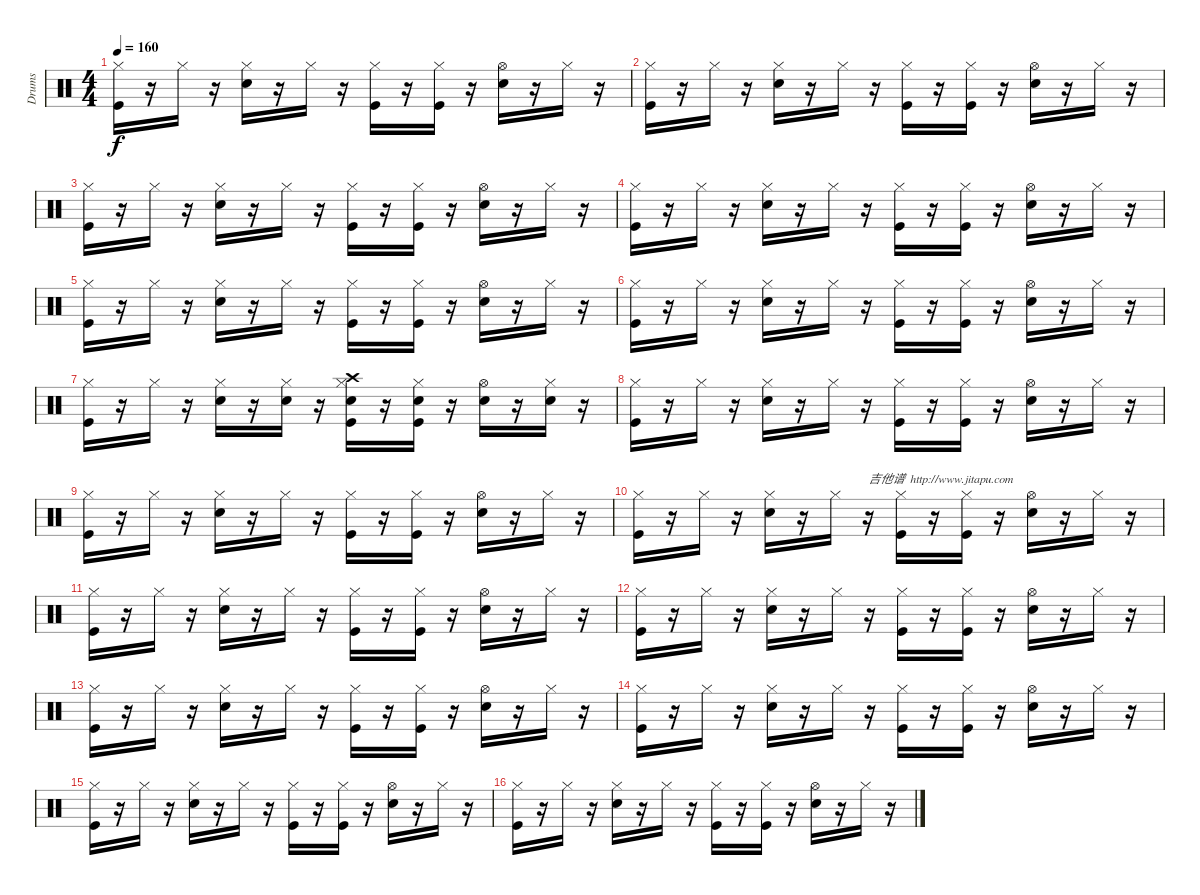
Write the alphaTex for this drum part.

\track ("Drums" "Drums") {instrument percussion}
\staff {score}
\articulation defaults
\ts (4 4)
\tempo 160
\clef neutral
\ks c
("Hi-Hat (closed)" "Kick (hit)").16{dy f} r.16 "Hi-Hat (closed)".16 r.16 ("Hi-Hat (closed)" "Snare (hit) 2").16 r.16 "Hi-Hat (closed)".16 r.16 ("Hi-Hat (closed)" "Kick (hit)").16 r.16 ("Kick (hit)" "Hi-Hat (closed)").16 r.16 ("Hi-Hat (open)" "Snare (hit) 2").16 r.16 "Hi-Hat (closed)".16 r.16 |
("Hi-Hat (closed)" "Kick (hit)").16 r.16 "Hi-Hat (closed)".16 r.16 ("Hi-Hat (closed)" "Snare (hit) 2").16 r.16 "Hi-Hat (closed)".16 r.16 ("Hi-Hat (closed)" "Kick (hit)").16 r.16 ("Kick (hit)" "Hi-Hat (closed)").16 r.16 ("Hi-Hat (open)" "Snare (hit) 2").16 r.16 "Hi-Hat (closed)".16 r.16 |
("Hi-Hat (closed)" "Kick (hit)").16 r.16 "Hi-Hat (closed)".16 r.16 ("Hi-Hat (closed)" "Snare (hit) 2").16 r.16 "Hi-Hat (closed)".16 r.16 ("Hi-Hat (closed)" "Kick (hit)").16 r.16 ("Kick (hit)" "Hi-Hat (closed)").16 r.16 ("Hi-Hat (open)" "Snare (hit) 2").16 r.16 "Hi-Hat (closed)".16 r.16 |
("Hi-Hat (closed)" "Kick (hit)").16 r.16 "Hi-Hat (closed)".16 r.16 ("Hi-Hat (closed)" "Snare (hit) 2").16 r.16 "Hi-Hat (closed)".16 r.16 ("Hi-Hat (closed)" "Kick (hit)").16 r.16 ("Kick (hit)" "Hi-Hat (closed)").16 r.16 ("Hi-Hat (open)" "Snare (hit) 2").16 r.16 "Hi-Hat (closed)".16 r.16 |
("Hi-Hat (closed)" "Kick (hit)").16 r.16 "Hi-Hat (closed)".16 r.16 ("Hi-Hat (closed)" "Snare (hit) 2").16 r.16 "Hi-Hat (closed)".16 r.16 ("Hi-Hat (closed)" "Kick (hit)").16 r.16 ("Kick (hit)" "Hi-Hat (closed)").16 r.16 ("Hi-Hat (open)" "Snare (hit) 2").16 r.16 "Hi-Hat (closed)".16 r.16 |
("Hi-Hat (closed)" "Kick (hit)").16 r.16 "Hi-Hat (closed)".16 r.16 ("Hi-Hat (closed)" "Snare (hit) 2").16 r.16 "Hi-Hat (closed)".16 r.16 ("Hi-Hat (closed)" "Kick (hit)").16 r.16 ("Kick (hit)" "Hi-Hat (closed)").16 r.16 ("Hi-Hat (open)" "Snare (hit) 2").16 r.16 "Hi-Hat (closed)".16 r.16 |
("Hi-Hat (closed)" "Kick (hit)").16 r.16 "Hi-Hat (closed)".16 r.16 ("Hi-Hat (closed)" "Snare (hit) 2").16 r.16 ("Snare (hit) 2" "Hi-Hat (closed)").16 r.16 ("Crash high (hit)" "Snare (hit) 2" "Hi-Hat (closed)" "Kick (hit)").16 r.16 ("Snare (hit) 2" "Kick (hit)" "Hi-Hat (closed)").16 r.16 ("Hi-Hat (open)" "Snare (hit) 2").16 r.16 ("Snare (hit) 2" "Hi-Hat (closed)").16 r.16 |
("Hi-Hat (closed)" "Kick (hit)").16 r.16 "Hi-Hat (closed)".16 r.16 ("Hi-Hat (closed)" "Snare (hit) 2").16 r.16 "Hi-Hat (closed)".16 r.16 ("Hi-Hat (closed)" "Kick (hit)").16 r.16 ("Kick (hit)" "Hi-Hat (closed)").16 r.16 ("Hi-Hat (open)" "Snare (hit) 2").16 r.16 "Hi-Hat (closed)".16 r.16 |
("Hi-Hat (closed)" "Kick (hit)").16 r.16 "Hi-Hat (closed)".16 r.16 ("Hi-Hat (closed)" "Snare (hit) 2").16 r.16 "Hi-Hat (closed)".16 r.16 ("Hi-Hat (closed)" "Kick (hit)").16 r.16 ("Kick (hit)" "Hi-Hat (closed)").16 r.16 ("Hi-Hat (open)" "Snare (hit) 2").16 r.16 "Hi-Hat (closed)".16 r.16 |
("Hi-Hat (closed)" "Kick (hit)").16 r.16 "Hi-Hat (closed)".16 r.16 ("Hi-Hat (closed)" "Snare (hit) 2").16 r.16 "Hi-Hat (closed)".16 r.16{txt "吉他谱  http://www.jitapu.com"} ("Hi-Hat (closed)" "Kick (hit)").16 r.16 ("Kick (hit)" "Hi-Hat (closed)").16 r.16 ("Hi-Hat (open)" "Snare (hit) 2").16 r.16 "Hi-Hat (closed)".16 r.16 |
("Hi-Hat (closed)" "Kick (hit)").16 r.16 "Hi-Hat (closed)".16 r.16 ("Hi-Hat (closed)" "Snare (hit) 2").16 r.16 "Hi-Hat (closed)".16 r.16 ("Hi-Hat (closed)" "Kick (hit)").16 r.16 ("Kick (hit)" "Hi-Hat (closed)").16 r.16 ("Hi-Hat (open)" "Snare (hit) 2").16 r.16 "Hi-Hat (closed)".16 r.16 |
("Hi-Hat (closed)" "Kick (hit)").16 r.16 "Hi-Hat (closed)".16 r.16 ("Hi-Hat (closed)" "Snare (hit) 2").16 r.16 "Hi-Hat (closed)".16 r.16 ("Hi-Hat (closed)" "Kick (hit)").16 r.16 ("Kick (hit)" "Hi-Hat (closed)").16 r.16 ("Hi-Hat (open)" "Snare (hit) 2").16 r.16 "Hi-Hat (closed)".16 r.16 |
("Hi-Hat (closed)" "Kick (hit)").16 r.16 "Hi-Hat (closed)".16 r.16 ("Hi-Hat (closed)" "Snare (hit) 2").16 r.16 "Hi-Hat (closed)".16 r.16 ("Hi-Hat (closed)" "Kick (hit)").16 r.16 ("Kick (hit)" "Hi-Hat (closed)").16 r.16 ("Hi-Hat (open)" "Snare (hit) 2").16 r.16 "Hi-Hat (closed)".16 r.16 |
("Hi-Hat (closed)" "Kick (hit)").16 r.16 "Hi-Hat (closed)".16 r.16 ("Hi-Hat (closed)" "Snare (hit) 2").16 r.16 "Hi-Hat (closed)".16 r.16 ("Hi-Hat (closed)" "Kick (hit)").16 r.16 ("Kick (hit)" "Hi-Hat (closed)").16 r.16 ("Hi-Hat (open)" "Snare (hit) 2").16 r.16 "Hi-Hat (closed)".16 r.16 |
("Hi-Hat (closed)" "Kick (hit)").16 r.16 "Hi-Hat (closed)".16 r.16 ("Hi-Hat (closed)" "Snare (hit) 2").16 r.16 "Hi-Hat (closed)".16 r.16 ("Hi-Hat (closed)" "Kick (hit)").16 r.16 ("Kick (hit)" "Hi-Hat (closed)").16 r.16 ("Hi-Hat (open)" "Snare (hit) 2").16 r.16 "Hi-Hat (closed)".16 r.16 |
("Hi-Hat (closed)" "Kick (hit)").16 r.16 "Hi-Hat (closed)".16 r.16 ("Hi-Hat (closed)" "Snare (hit) 2").16 r.16 "Hi-Hat (closed)".16 r.16 ("Hi-Hat (closed)" "Kick (hit)").16 r.16 ("Kick (hit)" "Hi-Hat (closed)").16 r.16 ("Hi-Hat (open)" "Snare (hit) 2").16 r.16 "Hi-Hat (closed)".16 r.16
